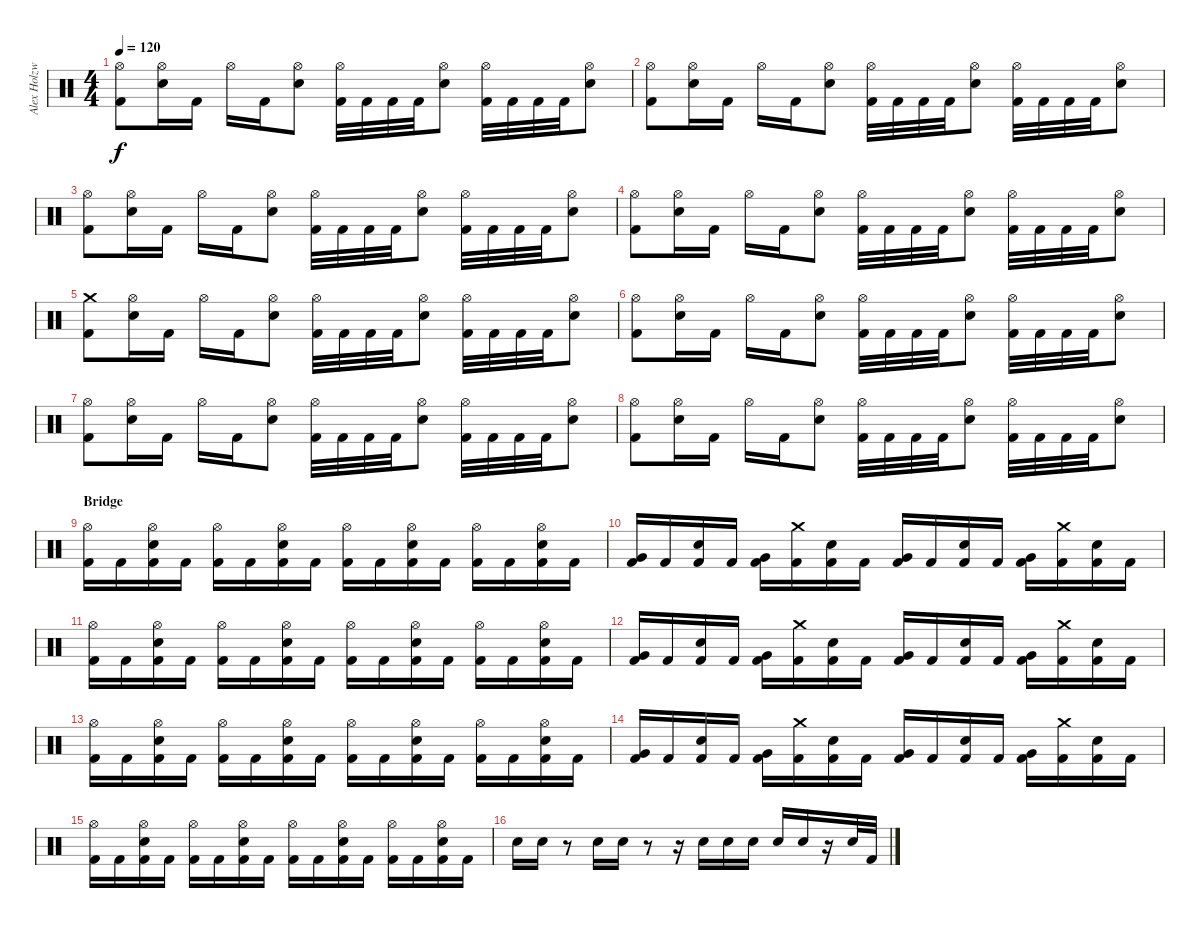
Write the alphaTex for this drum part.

\track ("Alex Holzwarth - Drums" "Alex Holzw") {instrument percussion}
\staff {score}
\articulation defaults
\ts (4 4)
\tempo 120
\clef neutral
\ks c
("Hi-Hat (open)" "Kick (hit) 2").8{dy f} ("Hi-Hat (open)" "Electric Snare (hit)").16 "Kick (hit) 2".16 "Hi-Hat (open)".16 "Kick (hit) 2".16 ("Hi-Hat (open)" "Electric Snare (hit)").8 ("Hi-Hat (open)" "Kick (hit) 2").32 "Kick (hit) 2".32 "Kick (hit) 2".32 "Kick (hit) 2".32 ("Hi-Hat (open)" "Electric Snare (hit)").8 ("Hi-Hat (open)" "Kick (hit) 2").32 "Kick (hit) 2".32 "Kick (hit) 2".32 "Kick (hit) 2".32 ("Hi-Hat (open)" "Electric Snare (hit)").8 |
("Hi-Hat (open)" "Kick (hit) 2").8 ("Hi-Hat (open)" "Electric Snare (hit)").16 "Kick (hit) 2".16 "Hi-Hat (open)".16 "Kick (hit) 2".16 ("Hi-Hat (open)" "Electric Snare (hit)").8 ("Hi-Hat (open)" "Kick (hit) 2").32 "Kick (hit) 2".32 "Kick (hit) 2".32 "Kick (hit) 2".32 ("Hi-Hat (open)" "Electric Snare (hit)").8 ("Hi-Hat (open)" "Kick (hit) 2").32 "Kick (hit) 2".32 "Kick (hit) 2".32 "Kick (hit) 2".32 ("Hi-Hat (open)" "Electric Snare (hit)").8 |
("Hi-Hat (open)" "Kick (hit) 2").8 ("Hi-Hat (open)" "Electric Snare (hit)").16 "Kick (hit) 2".16 "Hi-Hat (open)".16 "Kick (hit) 2".16 ("Hi-Hat (open)" "Electric Snare (hit)").8 ("Hi-Hat (open)" "Kick (hit) 2").32 "Kick (hit) 2".32 "Kick (hit) 2".32 "Kick (hit) 2".32 ("Hi-Hat (open)" "Electric Snare (hit)").8 ("Hi-Hat (open)" "Kick (hit) 2").32 "Kick (hit) 2".32 "Kick (hit) 2".32 "Kick (hit) 2".32 ("Hi-Hat (open)" "Electric Snare (hit)").8 |
("Hi-Hat (open)" "Kick (hit) 2").8 ("Hi-Hat (open)" "Electric Snare (hit)").16 "Kick (hit) 2".16 "Hi-Hat (open)".16 "Kick (hit) 2".16 ("Hi-Hat (open)" "Electric Snare (hit)").8 ("Hi-Hat (open)" "Kick (hit) 2").32 "Kick (hit) 2".32 "Kick (hit) 2".32 "Kick (hit) 2".32 ("Hi-Hat (open)" "Electric Snare (hit)").8 ("Hi-Hat (open)" "Kick (hit) 2").32 "Kick (hit) 2".32 "Kick (hit) 2".32 "Kick (hit) 2".32 ("Hi-Hat (open)" "Electric Snare (hit)").8 |
("Crash medium (hit)" "Kick (hit) 2").8 ("Hi-Hat (open)" "Electric Snare (hit)").16 "Kick (hit) 2".16 "Hi-Hat (open)".16 "Kick (hit) 2".16 ("Hi-Hat (open)" "Electric Snare (hit)").8 ("Hi-Hat (open)" "Kick (hit) 2").32 "Kick (hit) 2".32 "Kick (hit) 2".32 "Kick (hit) 2".32 ("Hi-Hat (open)" "Electric Snare (hit)").8 ("Hi-Hat (open)" "Kick (hit) 2").32 "Kick (hit) 2".32 "Kick (hit) 2".32 "Kick (hit) 2".32 ("Hi-Hat (open)" "Electric Snare (hit)").8 |
("Hi-Hat (open)" "Kick (hit) 2").8 ("Hi-Hat (open)" "Electric Snare (hit)").16 "Kick (hit) 2".16 "Hi-Hat (open)".16 "Kick (hit) 2".16 ("Hi-Hat (open)" "Electric Snare (hit)").8 ("Hi-Hat (open)" "Kick (hit) 2").32 "Kick (hit) 2".32 "Kick (hit) 2".32 "Kick (hit) 2".32 ("Hi-Hat (open)" "Electric Snare (hit)").8 ("Hi-Hat (open)" "Kick (hit) 2").32 "Kick (hit) 2".32 "Kick (hit) 2".32 "Kick (hit) 2".32 ("Hi-Hat (open)" "Electric Snare (hit)").8 |
("Hi-Hat (open)" "Kick (hit) 2").8 ("Hi-Hat (open)" "Electric Snare (hit)").16 "Kick (hit) 2".16 "Hi-Hat (open)".16 "Kick (hit) 2".16 ("Hi-Hat (open)" "Electric Snare (hit)").8 ("Hi-Hat (open)" "Kick (hit) 2").32 "Kick (hit) 2".32 "Kick (hit) 2".32 "Kick (hit) 2".32 ("Hi-Hat (open)" "Electric Snare (hit)").8 ("Hi-Hat (open)" "Kick (hit) 2").32 "Kick (hit) 2".32 "Kick (hit) 2".32 "Kick (hit) 2".32 ("Hi-Hat (open)" "Electric Snare (hit)").8 |
("Hi-Hat (open)" "Kick (hit) 2").8 ("Hi-Hat (open)" "Electric Snare (hit)").16 "Kick (hit) 2".16 "Hi-Hat (open)".16 "Kick (hit) 2".16 ("Hi-Hat (open)" "Electric Snare (hit)").8 ("Hi-Hat (open)" "Kick (hit) 2").32 "Kick (hit) 2".32 "Kick (hit) 2".32 "Kick (hit) 2".32 ("Hi-Hat (open)" "Electric Snare (hit)").8 ("Hi-Hat (open)" "Kick (hit) 2").32 "Kick (hit) 2".32 "Kick (hit) 2".32 "Kick (hit) 2".32 ("Hi-Hat (open)" "Electric Snare (hit)").8 |
\section ("" "Bridge")
("Hi-Hat (open)" "Kick (hit) 2").16 "Kick (hit) 2".16 ("Hi-Hat (open)" "Electric Snare (hit)" "Kick (hit) 2").16 "Kick (hit) 2".16 ("Hi-Hat (open)" "Kick (hit) 2").16 "Kick (hit) 2".16 ("Hi-Hat (open)" "Electric Snare (hit)" "Kick (hit) 2").16 "Kick (hit) 2".16 ("Hi-Hat (open)" "Kick (hit) 2").16 "Kick (hit) 2".16 ("Hi-Hat (open)" "Electric Snare (hit)" "Kick (hit) 2").16 "Kick (hit) 2".16 ("Hi-Hat (open)" "Kick (hit) 2").16 "Kick (hit) 2".16 ("Hi-Hat (open)" "Electric Snare (hit)" "Kick (hit) 2").16 "Kick (hit) 2".16 |
("Very Low Tom (hit)" "Kick (hit) 2").16 "Kick (hit) 2".16 ("Electric Snare (hit)" "Kick (hit) 2").16 "Kick (hit) 2".16 ("Very Low Tom (hit)" "Kick (hit) 2").16 ("Crash medium (hit)" "Kick (hit) 2").16 ("Electric Snare (hit)" "Kick (hit) 2").16 "Kick (hit) 2".16 ("Very Low Tom (hit)" "Kick (hit) 2").16 "Kick (hit) 2".16 ("Electric Snare (hit)" "Kick (hit) 2").16 "Kick (hit) 2".16 ("Very Low Tom (hit)" "Kick (hit) 2").16 ("Crash medium (hit)" "Kick (hit) 2").16 ("Electric Snare (hit)" "Kick (hit) 2").16 "Kick (hit) 2".16 |
("Hi-Hat (open)" "Kick (hit) 2").16 "Kick (hit) 2".16 ("Hi-Hat (open)" "Electric Snare (hit)" "Kick (hit) 2").16 "Kick (hit) 2".16 ("Hi-Hat (open)" "Kick (hit) 2").16 "Kick (hit) 2".16 ("Hi-Hat (open)" "Electric Snare (hit)" "Kick (hit) 2").16 "Kick (hit) 2".16 ("Hi-Hat (open)" "Kick (hit) 2").16 "Kick (hit) 2".16 ("Hi-Hat (open)" "Electric Snare (hit)" "Kick (hit) 2").16 "Kick (hit) 2".16 ("Hi-Hat (open)" "Kick (hit) 2").16 "Kick (hit) 2".16 ("Hi-Hat (open)" "Electric Snare (hit)" "Kick (hit) 2").16 "Kick (hit) 2".16 |
("Very Low Tom (hit)" "Kick (hit) 2").16 "Kick (hit) 2".16 ("Electric Snare (hit)" "Kick (hit) 2").16 "Kick (hit) 2".16 ("Very Low Tom (hit)" "Kick (hit) 2").16 ("Crash medium (hit)" "Kick (hit) 2").16 ("Electric Snare (hit)" "Kick (hit) 2").16 "Kick (hit) 2".16 ("Very Low Tom (hit)" "Kick (hit) 2").16 "Kick (hit) 2".16 ("Electric Snare (hit)" "Kick (hit) 2").16 "Kick (hit) 2".16 ("Very Low Tom (hit)" "Kick (hit) 2").16 ("Crash medium (hit)" "Kick (hit) 2").16 ("Electric Snare (hit)" "Kick (hit) 2").16 "Kick (hit) 2".16 |
("Hi-Hat (open)" "Kick (hit) 2").16 "Kick (hit) 2".16 ("Hi-Hat (open)" "Electric Snare (hit)" "Kick (hit) 2").16 "Kick (hit) 2".16 ("Hi-Hat (open)" "Kick (hit) 2").16 "Kick (hit) 2".16 ("Hi-Hat (open)" "Electric Snare (hit)" "Kick (hit) 2").16 "Kick (hit) 2".16 ("Hi-Hat (open)" "Kick (hit) 2").16 "Kick (hit) 2".16 ("Hi-Hat (open)" "Electric Snare (hit)" "Kick (hit) 2").16 "Kick (hit) 2".16 ("Hi-Hat (open)" "Kick (hit) 2").16 "Kick (hit) 2".16 ("Hi-Hat (open)" "Electric Snare (hit)" "Kick (hit) 2").16 "Kick (hit) 2".16 |
("Very Low Tom (hit)" "Kick (hit) 2").16 "Kick (hit) 2".16 ("Electric Snare (hit)" "Kick (hit) 2").16 "Kick (hit) 2".16 ("Very Low Tom (hit)" "Kick (hit) 2").16 ("Crash medium (hit)" "Kick (hit) 2").16 ("Electric Snare (hit)" "Kick (hit) 2").16 "Kick (hit) 2".16 ("Very Low Tom (hit)" "Kick (hit) 2").16 "Kick (hit) 2".16 ("Electric Snare (hit)" "Kick (hit) 2").16 "Kick (hit) 2".16 ("Very Low Tom (hit)" "Kick (hit) 2").16 ("Crash medium (hit)" "Kick (hit) 2").16 ("Electric Snare (hit)" "Kick (hit) 2").16 "Kick (hit) 2".16 |
("Hi-Hat (open)" "Kick (hit) 2").16 "Kick (hit) 2".16 ("Hi-Hat (open)" "Electric Snare (hit)" "Kick (hit) 2").16 "Kick (hit) 2".16 ("Hi-Hat (open)" "Kick (hit) 2").16 "Kick (hit) 2".16 ("Hi-Hat (open)" "Electric Snare (hit)" "Kick (hit) 2").16 "Kick (hit) 2".16 ("Hi-Hat (open)" "Kick (hit) 2").16 "Kick (hit) 2".16 ("Hi-Hat (open)" "Electric Snare (hit)" "Kick (hit) 2").16 "Kick (hit) 2".16 ("Hi-Hat (open)" "Kick (hit) 2").16 "Kick (hit) 2".16 ("Hi-Hat (open)" "Electric Snare (hit)" "Kick (hit) 2").16 "Kick (hit) 2".16 |
"Electric Snare (hit)".16 "Electric Snare (hit)".16 r.8 "Electric Snare (hit)".16 "Electric Snare (hit)".16 r.8 r.16 "Electric Snare (hit)".16 "Electric Snare (hit)".16 "Electric Snare (hit)".16 "Electric Snare (hit)".16 "Electric Snare (hit)".16 r.16 "Electric Snare (hit)".32 "Kick (hit) 2".32
